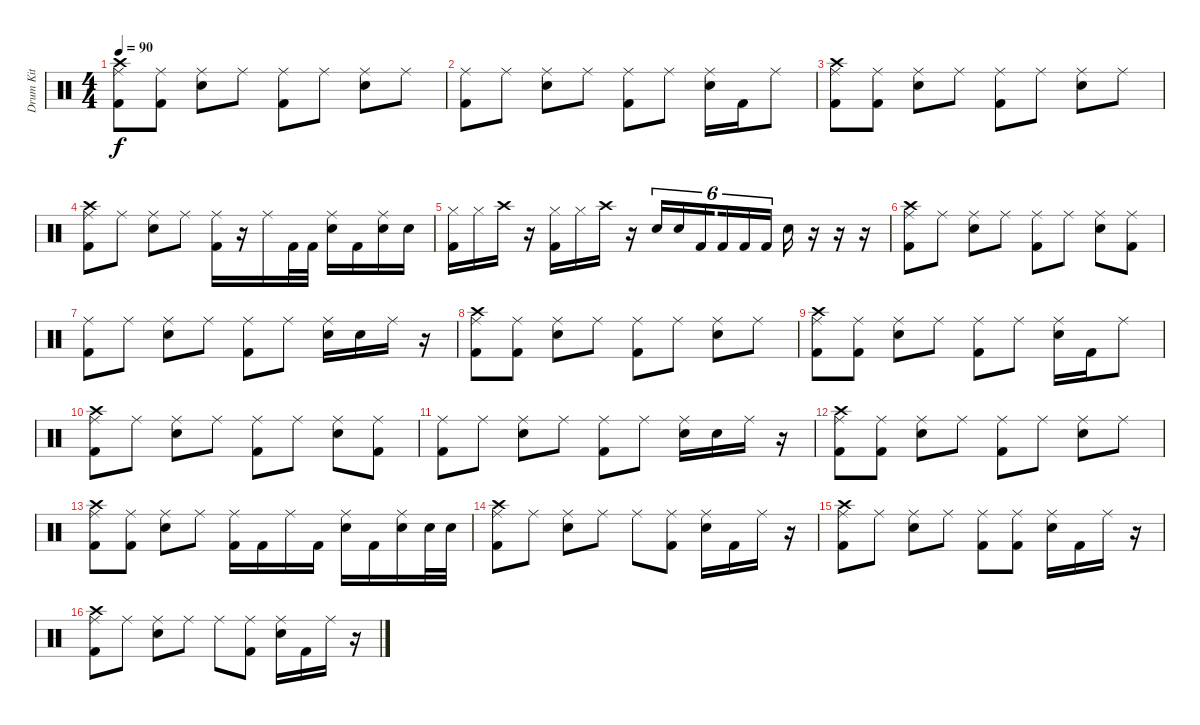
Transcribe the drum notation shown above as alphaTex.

\track ("Drum Kit" "Drum Kit") {instrument percussion}
\staff {score}
\articulation defaults
\ts (4 4)
\tempo 90
\clef neutral
\ks c
("Ride (middle)" "Crash high (hit)" "Kick (hit) 2").8{dy f} ("Ride (middle)" "Kick (hit) 2").8 ("Ride (middle)" "Snare (hit) 2").8 "Ride (middle)".8 ("Ride (middle)" "Kick (hit) 2").8 "Ride (middle)".8 ("Ride (middle)" "Snare (hit) 2").8 "Ride (middle)".8 |
("Ride (middle)" "Kick (hit) 2").8 "Ride (middle)".8 ("Ride (middle)" "Snare (hit) 2").8 "Ride (middle)".8 ("Ride (middle)" "Kick (hit) 2").8 "Ride (middle)".8 ("Ride (middle)" "Snare (hit) 2").16 "Kick (hit) 2".16 "Ride (middle)".8 |
("Ride (middle)" "Crash high (hit)" "Kick (hit) 2").8 ("Ride (middle)" "Kick (hit) 2").8 ("Ride (middle)" "Snare (hit) 2").8 "Ride (middle)".8 ("Ride (middle)" "Kick (hit) 2").8 "Ride (middle)".8 ("Ride (middle)" "Snare (hit) 2").8 "Ride (middle)".8 |
("Ride (middle)" "Crash high (hit)" "Kick (hit) 2").8 "Ride (middle)".8 ("Ride (middle)" "Snare (hit) 2").8 "Ride (middle)".8 ("Ride (middle)" "Kick (hit) 2").16 r.16 "Ride (middle)".16 "Kick (hit) 2".32 "Kick (hit) 2".32 ("Ride (middle)" "Snare (hit) 2").16 "Kick (hit) 2".16 ("Ride (middle)" "Snare (hit) 2").16 "Snare (hit) 2".16 |
("Hi-Hat (closed)" "Kick (hit) 2").16 "Hi-Hat (closed)".16 "Crash high (hit)".16 r.16 ("Hi-Hat (closed)" "Kick (hit) 2").16 "Hi-Hat (closed)".16 "Crash high (hit)".16 r.16 "Snare (hit) 2".16{tu (6 4)} "Snare (hit) 2".16{tu (6 4)} "Kick (hit) 2".16{tu (6 4) beam splitsecondary} "Kick (hit) 2".16{tu (6 4)} "Kick (hit) 2".16{tu (6 4)} "Kick (hit) 2".16{tu (6 4)} "Snare (hit) 2".16 r.16 r.16 r.16 |
("Crash high (hit)" "Ride (middle)" "Kick (hit) 2").8 "Ride (middle)".8 ("Ride (middle)" "Snare (hit) 2").8 "Ride (middle)".8 ("Ride (middle)" "Kick (hit) 2").8 "Ride (middle)".8 ("Ride (middle)" "Snare (hit) 2").8 ("Ride (middle)" "Kick (hit) 2").8 |
("Ride (middle)" "Kick (hit) 2").8 "Ride (middle)".8 ("Ride (middle)" "Snare (hit) 2").8 "Ride (middle)".8 ("Ride (middle)" "Kick (hit) 2").8 "Ride (middle)".8 ("Ride (middle)" "Snare (hit) 2").16 "Snare (hit) 2".16 "Ride (middle)".16 r.16 |
("Ride (middle)" "Crash high (hit)" "Kick (hit) 2").8 ("Ride (middle)" "Kick (hit) 2").8 ("Ride (middle)" "Snare (hit) 2").8 "Ride (middle)".8 ("Ride (middle)" "Kick (hit) 2").8 "Ride (middle)".8 ("Ride (middle)" "Snare (hit) 2").8 "Ride (middle)".8 |
("Ride (middle)" "Crash high (hit)" "Kick (hit) 2").8 ("Ride (middle)" "Kick (hit) 2").8 ("Ride (middle)" "Snare (hit) 2").8 "Ride (middle)".8 ("Ride (middle)" "Kick (hit) 2").8 "Ride (middle)".8 ("Ride (middle)" "Snare (hit) 2").16 "Kick (hit) 2".16 "Ride (middle)".8 |
("Crash high (hit)" "Ride (middle)" "Kick (hit) 2").8 "Ride (middle)".8 ("Ride (middle)" "Snare (hit) 2").8 "Ride (middle)".8 ("Ride (middle)" "Kick (hit) 2").8 "Ride (middle)".8 ("Ride (middle)" "Snare (hit) 2").8 ("Ride (middle)" "Kick (hit) 2").8 |
("Ride (middle)" "Kick (hit) 2").8 "Ride (middle)".8 ("Ride (middle)" "Snare (hit) 2").8 "Ride (middle)".8 ("Ride (middle)" "Kick (hit) 2").8 "Ride (middle)".8 ("Ride (middle)" "Snare (hit) 2").16 "Snare (hit) 2".16 "Ride (middle)".16 r.16 |
("Ride (middle)" "Crash high (hit)" "Kick (hit) 2").8 ("Ride (middle)" "Kick (hit) 2").8 ("Ride (middle)" "Snare (hit) 2").8 "Ride (middle)".8 ("Ride (middle)" "Kick (hit) 2").8 "Ride (middle)".8 ("Ride (middle)" "Snare (hit) 2").8 "Ride (middle)".8 |
("Ride (middle)" "Crash high (hit)" "Kick (hit) 2").8 ("Ride (middle)" "Kick (hit) 2").8 ("Ride (middle)" "Snare (hit) 2").8 "Ride (middle)".8 ("Ride (middle)" "Kick (hit) 2").16 "Kick (hit) 2".16 "Ride (middle)".16 "Kick (hit) 2".16 ("Ride (middle)" "Snare (hit) 2").16 "Kick (hit) 2".16 ("Ride (middle)" "Snare (hit) 2").16 "Snare (hit) 2".32 "Snare (hit) 2".32 |
("Ride (middle)" "Crash high (hit)" "Kick (hit) 2").8 "Ride (middle)".8 ("Ride (middle)" "Snare (hit) 2").8 "Ride (middle)".8 "Ride (middle)".8 ("Ride (middle)" "Kick (hit) 2").8 ("Ride (middle)" "Snare (hit) 2").16 "Kick (hit) 2".16 "Ride (middle)".16 r.16 |
("Ride (middle)" "Crash high (hit)" "Kick (hit) 2").8 "Ride (middle)".8 ("Ride (middle)" "Snare (hit) 2").8 "Ride (middle)".8 ("Ride (middle)" "Kick (hit) 2").8 ("Ride (middle)" "Kick (hit) 2").8 ("Ride (middle)" "Snare (hit) 2").16 "Kick (hit) 2".16 "Ride (middle)".16 r.16 |
("Ride (middle)" "Crash high (hit)" "Kick (hit) 2").8 "Ride (middle)".8 ("Ride (middle)" "Snare (hit) 2").8 "Ride (middle)".8 "Ride (middle)".8 ("Ride (middle)" "Kick (hit) 2").8 ("Ride (middle)" "Snare (hit) 2").16 "Kick (hit) 2".16 "Ride (middle)".16 r.16
